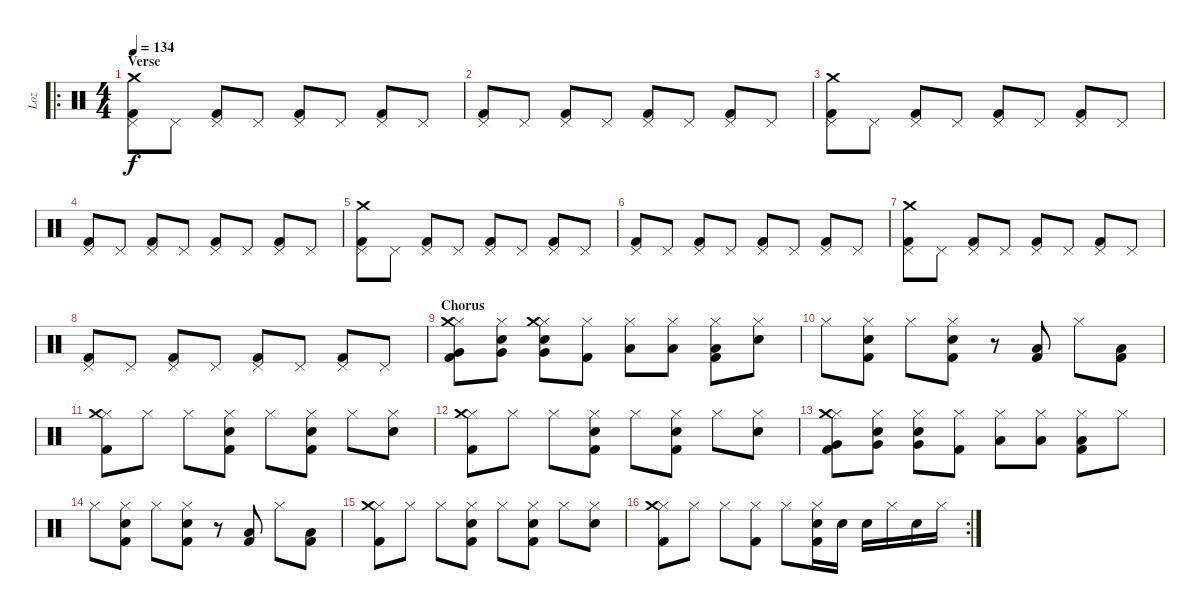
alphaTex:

\track ("Loz" "Loz") {instrument percussion}
\staff {score}
\articulation defaults
\ro
\ts (4 4)
\section ("" "Verse")
\tempo 134
\clef neutral
\ks c
("Crash medium (hit)" "Pedal Hi-Hat (hit)" "Kick (hit) 2").8{dy f} "Pedal Hi-Hat (hit)".8 ("Pedal Hi-Hat (hit)" "Kick (hit) 2").8 "Pedal Hi-Hat (hit)".8 ("Pedal Hi-Hat (hit)" "Kick (hit) 2").8 "Pedal Hi-Hat (hit)".8 ("Pedal Hi-Hat (hit)" "Kick (hit) 2").8 "Pedal Hi-Hat (hit)".8 |
("Pedal Hi-Hat (hit)" "Kick (hit) 2").8 "Pedal Hi-Hat (hit)".8 ("Pedal Hi-Hat (hit)" "Kick (hit) 2").8 "Pedal Hi-Hat (hit)".8 ("Pedal Hi-Hat (hit)" "Kick (hit) 2").8 "Pedal Hi-Hat (hit)".8 ("Pedal Hi-Hat (hit)" "Kick (hit) 2").8 "Pedal Hi-Hat (hit)".8 |
("Crash medium (hit)" "Pedal Hi-Hat (hit)" "Kick (hit) 2").8 "Pedal Hi-Hat (hit)".8 ("Pedal Hi-Hat (hit)" "Kick (hit) 2").8 "Pedal Hi-Hat (hit)".8 ("Pedal Hi-Hat (hit)" "Kick (hit) 2").8 "Pedal Hi-Hat (hit)".8 ("Pedal Hi-Hat (hit)" "Kick (hit) 2").8 "Pedal Hi-Hat (hit)".8 |
("Pedal Hi-Hat (hit)" "Kick (hit) 2").8 "Pedal Hi-Hat (hit)".8 ("Pedal Hi-Hat (hit)" "Kick (hit) 2").8 "Pedal Hi-Hat (hit)".8 ("Pedal Hi-Hat (hit)" "Kick (hit) 2").8 "Pedal Hi-Hat (hit)".8 ("Pedal Hi-Hat (hit)" "Kick (hit) 2").8 "Pedal Hi-Hat (hit)".8 |
("Crash medium (hit)" "Pedal Hi-Hat (hit)" "Kick (hit) 2").8 "Pedal Hi-Hat (hit)".8 ("Pedal Hi-Hat (hit)" "Kick (hit) 2").8 "Pedal Hi-Hat (hit)".8 ("Pedal Hi-Hat (hit)" "Kick (hit) 2").8 "Pedal Hi-Hat (hit)".8 ("Pedal Hi-Hat (hit)" "Kick (hit) 2").8 "Pedal Hi-Hat (hit)".8 |
("Pedal Hi-Hat (hit)" "Kick (hit) 2").8 "Pedal Hi-Hat (hit)".8 ("Pedal Hi-Hat (hit)" "Kick (hit) 2").8 "Pedal Hi-Hat (hit)".8 ("Pedal Hi-Hat (hit)" "Kick (hit) 2").8 "Pedal Hi-Hat (hit)".8 ("Pedal Hi-Hat (hit)" "Kick (hit) 2").8 "Pedal Hi-Hat (hit)".8 |
("Crash medium (hit)" "Pedal Hi-Hat (hit)" "Kick (hit) 2").8 "Pedal Hi-Hat (hit)".8 ("Pedal Hi-Hat (hit)" "Kick (hit) 2").8 "Pedal Hi-Hat (hit)".8 ("Pedal Hi-Hat (hit)" "Kick (hit) 2").8 "Pedal Hi-Hat (hit)".8 ("Pedal Hi-Hat (hit)" "Kick (hit) 2").8 "Pedal Hi-Hat (hit)".8 |
("Pedal Hi-Hat (hit)" "Kick (hit) 2").8 "Pedal Hi-Hat (hit)".8 ("Pedal Hi-Hat (hit)" "Kick (hit) 2").8 "Pedal Hi-Hat (hit)".8 ("Pedal Hi-Hat (hit)" "Kick (hit) 2").8 "Pedal Hi-Hat (hit)".8 ("Pedal Hi-Hat (hit)" "Kick (hit) 2").8 "Pedal Hi-Hat (hit)".8 |
\section ("" "Chorus")
("Hi-Hat (closed)" "Crash medium (hit)" "Very Low Tom (hit)" "Kick (hit) 2").8 ("Hi-Hat (closed)" "Electric Snare (hit)" "Very Low Tom (hit)").8 ("Hi-Hat (closed)" "Crash medium (hit)" "Electric Snare (hit)" "Very Low Tom (hit)").8 ("Hi-Hat (closed)" "Kick (hit) 2").8 ("Hi-Hat (closed)" "Low Floor Tom (hit)").8 ("Hi-Hat (closed)" "Low Floor Tom (hit)").8 ("Hi-Hat (closed)" "Low Floor Tom (hit)" "Kick (hit) 2").8 ("Hi-Hat (closed)" "Electric Snare (hit)").8 |
"Hi-Hat (closed)".8 ("Hi-Hat (closed)" "Electric Snare (hit)" "Kick (hit) 2").8 "Hi-Hat (closed)".8 ("Hi-Hat (closed)" "Electric Snare (hit)" "Kick (hit) 2").8 r.8 ("Low Floor Tom (hit)" "Kick (hit) 2").8 "Hi-Hat (closed)".8 ("Low Floor Tom (hit)" "Kick (hit) 2").8 |
("Hi-Hat (closed)" "Crash medium (hit)" "Kick (hit) 2").8 "Hi-Hat (closed)".8 "Hi-Hat (closed)".8 ("Hi-Hat (closed)" "Electric Snare (hit)" "Kick (hit) 2").8 "Hi-Hat (closed)".8 ("Hi-Hat (closed)" "Electric Snare (hit)" "Kick (hit) 2").8 "Hi-Hat (closed)".8 ("Hi-Hat (closed)" "Electric Snare (hit)").8 |
("Hi-Hat (closed)" "Crash medium (hit)" "Kick (hit) 2").8 "Hi-Hat (closed)".8 "Hi-Hat (closed)".8 ("Hi-Hat (closed)" "Electric Snare (hit)" "Kick (hit) 2").8 "Hi-Hat (closed)".8 ("Hi-Hat (closed)" "Electric Snare (hit)" "Kick (hit) 2").8 "Hi-Hat (closed)".8 ("Hi-Hat (closed)" "Electric Snare (hit)").8 |
("Hi-Hat (closed)" "Crash medium (hit)" "Very Low Tom (hit)" "Kick (hit) 2").8 ("Hi-Hat (closed)" "Electric Snare (hit)" "Very Low Tom (hit)").8 ("Hi-Hat (closed)" "Electric Snare (hit)" "Very Low Tom (hit)").8 ("Hi-Hat (closed)" "Kick (hit) 2").8 ("Hi-Hat (closed)" "Low Floor Tom (hit)").8 ("Hi-Hat (closed)" "Low Floor Tom (hit)").8 ("Hi-Hat (closed)" "Low Floor Tom (hit)" "Kick (hit) 2").8 "Hi-Hat (closed)".8 |
"Hi-Hat (closed)".8 ("Hi-Hat (closed)" "Electric Snare (hit)" "Kick (hit) 2").8 "Hi-Hat (closed)".8 ("Hi-Hat (closed)" "Electric Snare (hit)" "Kick (hit) 2").8 r.8 ("Low Floor Tom (hit)" "Kick (hit) 2").8 "Hi-Hat (closed)".8 ("Low Floor Tom (hit)" "Kick (hit) 2").8 |
("Hi-Hat (closed)" "Crash medium (hit)" "Kick (hit) 2").8 "Hi-Hat (closed)".8 "Hi-Hat (closed)".8 ("Hi-Hat (closed)" "Electric Snare (hit)" "Kick (hit) 2").8 "Hi-Hat (closed)".8 ("Hi-Hat (closed)" "Electric Snare (hit)" "Kick (hit) 2").8 "Hi-Hat (closed)".8 ("Hi-Hat (closed)" "Electric Snare (hit)").8 |
\rc 2
("Hi-Hat (closed)" "Crash medium (hit)" "Kick (hit) 2").8 "Hi-Hat (closed)".8 "Hi-Hat (closed)".8 ("Hi-Hat (closed)" "Kick (hit) 2").8 "Hi-Hat (closed)".8 ("Hi-Hat (closed)" "Electric Snare (hit)" "Kick (hit) 2").16 "Electric Snare (hit)".16 "Electric Snare (hit)".16 "Hi-Hat (closed)".16 "Electric Snare (hit)".16 "Hi-Hat (closed)".16
